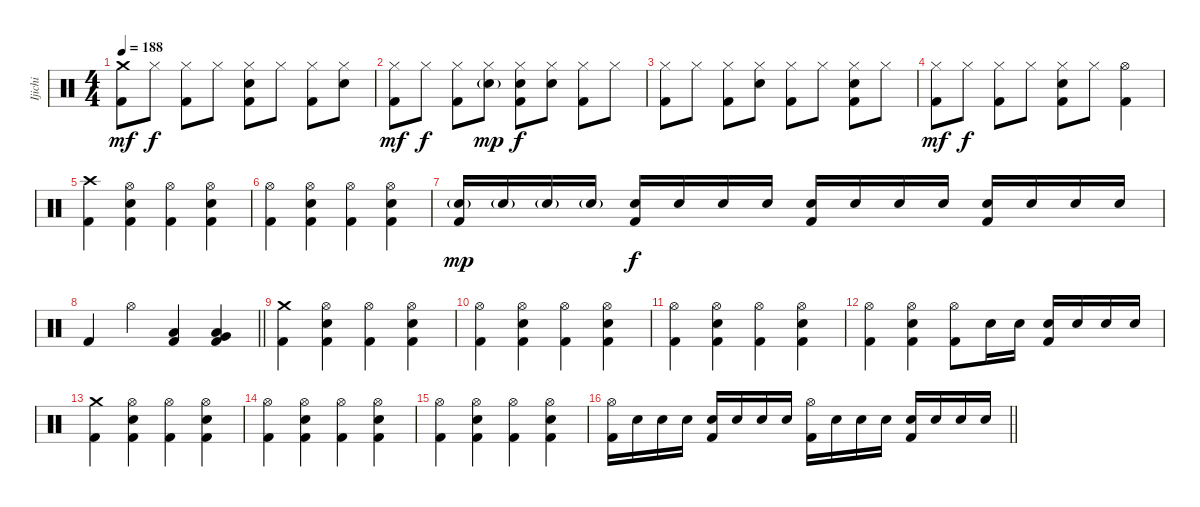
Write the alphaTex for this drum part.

\track ("Ijichi" "Ijichi") {instrument percussion}
\staff {score}
\articulation defaults
\ts (4 4)
\tempo 188
\clef neutral
\ks c
("Crash medium (hit)" "Kick (hit) 2").8{dy mf} "Hi-Hat (closed)".8{dy f} ("Hi-Hat (closed)" "Kick (hit) 2").8 "Hi-Hat (closed)".8 ("Hi-Hat (closed)" "Electric Snare (hit)" "Kick (hit) 2").8 "Hi-Hat (closed)".8 ("Hi-Hat (closed)" "Kick (hit) 2").8 ("Hi-Hat (closed)" "Electric Snare (hit)").8 |
("Hi-Hat (closed)" "Kick (hit) 2").8{dy mf} "Hi-Hat (closed)".8{dy f} ("Hi-Hat (closed)" "Kick (hit) 2").8 ("Hi-Hat (closed)" "Electric Snare (hit)"{g}).8{dy mp} ("Hi-Hat (closed)" "Electric Snare (hit)" "Kick (hit) 2").8{dy f} ("Hi-Hat (closed)" "Electric Snare (hit)").8 ("Hi-Hat (closed)" "Kick (hit) 2").8 "Hi-Hat (closed)".8 |
("Hi-Hat (closed)" "Kick (hit) 2").8 "Hi-Hat (closed)".8 ("Hi-Hat (closed)" "Kick (hit) 2").8 ("Hi-Hat (closed)" "Electric Snare (hit)").8 ("Hi-Hat (closed)" "Kick (hit) 2").8 "Hi-Hat (closed)".8 ("Hi-Hat (closed)" "Electric Snare (hit)" "Kick (hit) 2").8 "Hi-Hat (closed)".8 |
("Hi-Hat (closed)" "Kick (hit) 2").8{dy mf} "Hi-Hat (closed)".8{dy f} ("Hi-Hat (closed)" "Kick (hit) 2").8 "Hi-Hat (closed)".8 ("Hi-Hat (closed)" "Electric Snare (hit)" "Kick (hit) 2").8 "Hi-Hat (closed)".8 ("Hi-Hat (open)" "Kick (hit) 2").4 |
("Crash high (hit)" "Kick (hit) 2").4 ("Hi-Hat (open)" "Electric Snare (hit)" "Kick (hit) 2").4 ("Hi-Hat (open)" "Kick (hit) 2").4 ("Hi-Hat (open)" "Electric Snare (hit)" "Kick (hit) 2").4 |
("Hi-Hat (open)" "Kick (hit) 2").4 ("Hi-Hat (open)" "Electric Snare (hit)" "Kick (hit) 2").4 ("Hi-Hat (open)" "Kick (hit) 2").4 ("Hi-Hat (open)" "Electric Snare (hit)" "Kick (hit) 2").4 |
("Electric Snare (hit)"{g} "Kick (hit) 2").16{dy mp} "Electric Snare (hit)"{g}.16 "Electric Snare (hit)"{g}.16 "Electric Snare (hit)"{g}.16 ("Electric Snare (hit)" "Kick (hit) 2").16{dy f} "Electric Snare (hit)".16 "Electric Snare (hit)".16 "Electric Snare (hit)".16 ("Electric Snare (hit)" "Kick (hit) 2").16 "Electric Snare (hit)".16 "Electric Snare (hit)".16 "Electric Snare (hit)".16 ("Electric Snare (hit)" "Kick (hit) 2").16 "Electric Snare (hit)".16 "Electric Snare (hit)".16 "Electric Snare (hit)".16 |
\barLineRight lightlight "Kick (hit) 2".4 "Hi-Hat (open)".4
("Low Tom (hit)" "Kick (hit) 2").4 ("Very Low Tom (hit)" "Low Floor Tom (hit)" "Kick (hit) 2").4 |
("Crash medium (hit)" "Kick (hit) 2").4 ("Hi-Hat (open)" "Electric Snare (hit)" "Kick (hit) 2").4 ("Hi-Hat (open)" "Kick (hit) 2").4 ("Hi-Hat (open)" "Electric Snare (hit)" "Kick (hit) 2").4 |
("Hi-Hat (open)" "Kick (hit) 2").4 ("Hi-Hat (open)" "Electric Snare (hit)" "Kick (hit) 2").4 ("Hi-Hat (open)" "Kick (hit) 2").4 ("Hi-Hat (open)" "Electric Snare (hit)" "Kick (hit) 2").4 |
("Hi-Hat (open)" "Kick (hit) 2").4 ("Hi-Hat (open)" "Electric Snare (hit)" "Kick (hit) 2").4 ("Hi-Hat (open)" "Kick (hit) 2").4 ("Hi-Hat (open)" "Electric Snare (hit)" "Kick (hit) 2").4 |
("Hi-Hat (open)" "Kick (hit) 2").4 ("Hi-Hat (open)" "Electric Snare (hit)" "Kick (hit) 2").4 ("Hi-Hat (open)" "Kick (hit) 2").8 "Electric Snare (hit)".16 "Electric Snare (hit)".16 ("Electric Snare (hit)" "Kick (hit) 2").16 "Electric Snare (hit)".16 "Electric Snare (hit)".16 "Electric Snare (hit)".16 |
("Crash medium (hit)" "Kick (hit) 2").4 ("Hi-Hat (open)" "Electric Snare (hit)" "Kick (hit) 2").4 ("Hi-Hat (open)" "Kick (hit) 2").4 ("Hi-Hat (open)" "Electric Snare (hit)" "Kick (hit) 2").4 |
("Hi-Hat (open)" "Kick (hit) 2").4 ("Hi-Hat (open)" "Electric Snare (hit)" "Kick (hit) 2").4 ("Hi-Hat (open)" "Kick (hit) 2").4 ("Hi-Hat (open)" "Electric Snare (hit)" "Kick (hit) 2").4 |
("Hi-Hat (open)" "Kick (hit) 2").4 ("Hi-Hat (open)" "Electric Snare (hit)" "Kick (hit) 2").4 ("Hi-Hat (open)" "Kick (hit) 2").4 ("Hi-Hat (open)" "Electric Snare (hit)" "Kick (hit) 2").4 |
\barLineRight lightlight
("Hi-Hat (open)" "Kick (hit) 2").16 "Electric Snare (hit)".16 "Electric Snare (hit)".16 "Electric Snare (hit)".16 ("Electric Snare (hit)" "Kick (hit) 2").16 "Electric Snare (hit)".16 "Electric Snare (hit)".16 "Electric Snare (hit)".16 ("Hi-Hat (open)" "Kick (hit) 2").16 "Electric Snare (hit)".16 "Electric Snare (hit)".16 "Electric Snare (hit)".16 ("Electric Snare (hit)" "Kick (hit) 2").16 "Electric Snare (hit)".16 "Electric Snare (hit)".16 "Electric Snare (hit)".16
